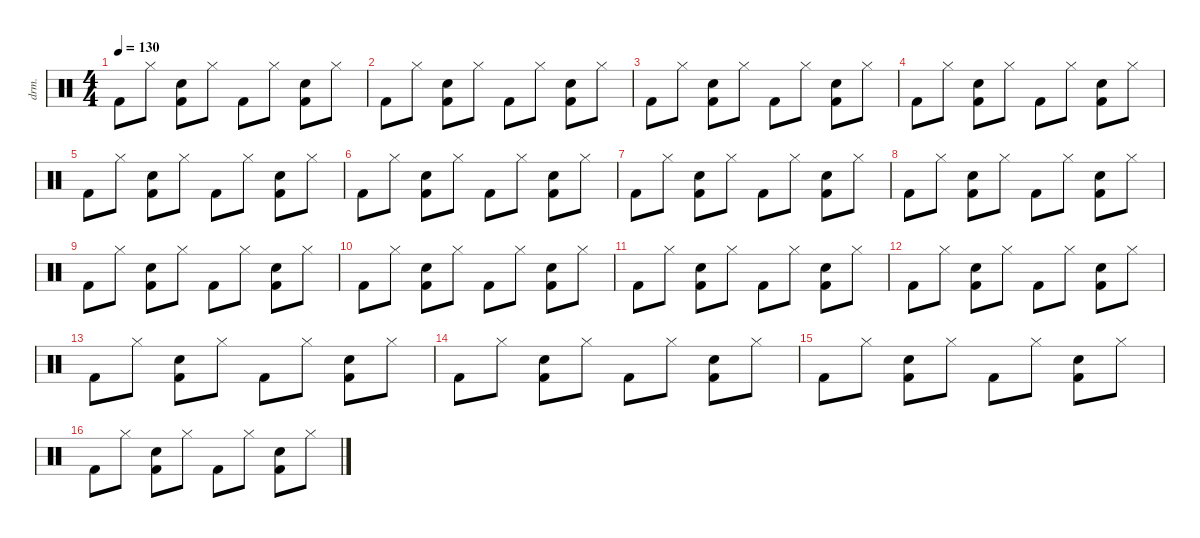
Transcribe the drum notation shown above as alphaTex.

\defaultSystemsLayout 4
\hideDynamics
\bracketExtendMode nobrackets
\otherSystemsTrackNameOrientation horizontal
\track ("Percussion" "drm.") {defaultSystemsLayout 4 instrument percussion}
\staff {score}
\articulation defaults
\ts (4 4)
\tempo 130
\clef neutral
\ks c "Kick (hit) 2".8{dy f beam Down} "Hi-Hat (closed)".8{beam Down}
("Snare (hit) 2" "Kick (hit) 2").8{beam Down} "Hi-Hat (closed)".8{beam Down} "Kick (hit) 2".8{beam Down} "Hi-Hat (closed)".8{beam Down} ("Snare (hit) 2" "Kick (hit) 2").8{beam Down} "Hi-Hat (closed)".8{beam Down} |
"Kick (hit) 2".8{beam Down} "Hi-Hat (closed)".8{beam Down} ("Snare (hit) 2" "Kick (hit) 2").8{beam Down} "Hi-Hat (closed)".8{beam Down} "Kick (hit) 2".8{beam Down} "Hi-Hat (closed)".8{beam Down} ("Snare (hit) 2" "Kick (hit) 2").8{beam Down} "Hi-Hat (closed)".8{beam Down} |
"Kick (hit) 2".8{beam Down} "Hi-Hat (closed)".8{beam Down} ("Snare (hit) 2" "Kick (hit) 2").8{beam Down} "Hi-Hat (closed)".8{beam Down} "Kick (hit) 2".8{beam Down} "Hi-Hat (closed)".8{beam Down} ("Snare (hit) 2" "Kick (hit) 2").8{beam Down} "Hi-Hat (closed)".8{beam Down} |
"Kick (hit) 2".8{beam Down} "Hi-Hat (closed)".8{beam Down} ("Snare (hit) 2" "Kick (hit) 2").8{beam Down} "Hi-Hat (closed)".8{beam Down} "Kick (hit) 2".8{beam Down} "Hi-Hat (closed)".8{beam Down} ("Snare (hit) 2" "Kick (hit) 2").8{beam Down} "Hi-Hat (closed)".8{beam Down} |
"Kick (hit) 2".8{beam Down} "Hi-Hat (closed)".8{beam Down} ("Snare (hit) 2" "Kick (hit) 2").8{beam Down} "Hi-Hat (closed)".8{beam Down} "Kick (hit) 2".8{beam Down} "Hi-Hat (closed)".8{beam Down} ("Snare (hit) 2" "Kick (hit) 2").8{beam Down} "Hi-Hat (closed)".8{beam Down} |
"Kick (hit) 2".8{beam Down} "Hi-Hat (closed)".8{beam Down} ("Snare (hit) 2" "Kick (hit) 2").8{beam Down} "Hi-Hat (closed)".8{beam Down} "Kick (hit) 2".8{beam Down} "Hi-Hat (closed)".8{beam Down} ("Snare (hit) 2" "Kick (hit) 2").8{beam Down} "Hi-Hat (closed)".8{beam Down} |
"Kick (hit) 2".8{beam Down} "Hi-Hat (closed)".8{beam Down} ("Snare (hit) 2" "Kick (hit) 2").8{beam Down} "Hi-Hat (closed)".8{beam Down} "Kick (hit) 2".8{beam Down} "Hi-Hat (closed)".8{beam Down} ("Snare (hit) 2" "Kick (hit) 2").8{beam Down} "Hi-Hat (closed)".8{beam Down} |
"Kick (hit) 2".8{beam Down} "Hi-Hat (closed)".8{beam Down} ("Snare (hit) 2" "Kick (hit) 2").8{beam Down} "Hi-Hat (closed)".8{beam Down} "Kick (hit) 2".8{beam Down} "Hi-Hat (closed)".8{beam Down} ("Snare (hit) 2" "Kick (hit) 2").8{beam Down} "Hi-Hat (closed)".8{beam Down} |
"Kick (hit) 2".8{beam Down} "Hi-Hat (closed)".8{beam Down} ("Snare (hit) 2" "Kick (hit) 2").8{beam Down} "Hi-Hat (closed)".8{beam Down} "Kick (hit) 2".8{beam Down} "Hi-Hat (closed)".8{beam Down} ("Snare (hit) 2" "Kick (hit) 2").8{beam Down} "Hi-Hat (closed)".8{beam Down} |
"Kick (hit) 2".8{beam Down} "Hi-Hat (closed)".8{beam Down} ("Snare (hit) 2" "Kick (hit) 2").8{beam Down} "Hi-Hat (closed)".8{beam Down} "Kick (hit) 2".8{beam Down} "Hi-Hat (closed)".8{beam Down} ("Snare (hit) 2" "Kick (hit) 2").8{beam Down} "Hi-Hat (closed)".8{beam Down} |
"Kick (hit) 2".8{beam Down} "Hi-Hat (closed)".8{beam Down} ("Snare (hit) 2" "Kick (hit) 2").8{beam Down} "Hi-Hat (closed)".8{beam Down} "Kick (hit) 2".8{beam Down} "Hi-Hat (closed)".8{beam Down} ("Snare (hit) 2" "Kick (hit) 2").8{beam Down} "Hi-Hat (closed)".8{beam Down} |
"Kick (hit) 2".8{beam Down} "Hi-Hat (closed)".8{beam Down} ("Snare (hit) 2" "Kick (hit) 2").8{beam Down} "Hi-Hat (closed)".8{beam Down} "Kick (hit) 2".8{beam Down} "Hi-Hat (closed)".8{beam Down} ("Snare (hit) 2" "Kick (hit) 2").8{beam Down} "Hi-Hat (closed)".8{beam Down} |
"Kick (hit) 2".8{beam Down} "Hi-Hat (closed)".8{beam Down} ("Snare (hit) 2" "Kick (hit) 2").8{beam Down} "Hi-Hat (closed)".8{beam Down} "Kick (hit) 2".8{beam Down} "Hi-Hat (closed)".8{beam Down} ("Snare (hit) 2" "Kick (hit) 2").8{beam Down} "Hi-Hat (closed)".8{beam Down} |
"Kick (hit) 2".8{beam Down} "Hi-Hat (closed)".8{beam Down} ("Snare (hit) 2" "Kick (hit) 2").8{beam Down} "Hi-Hat (closed)".8{beam Down} "Kick (hit) 2".8{beam Down} "Hi-Hat (closed)".8{beam Down} ("Snare (hit) 2" "Kick (hit) 2").8{beam Down} "Hi-Hat (closed)".8{beam Down} |
"Kick (hit) 2".8{beam Down} "Hi-Hat (closed)".8{beam Down} ("Snare (hit) 2" "Kick (hit) 2").8{beam Down} "Hi-Hat (closed)".8{beam Down} "Kick (hit) 2".8{beam Down} "Hi-Hat (closed)".8{beam Down} ("Snare (hit) 2" "Kick (hit) 2").8{beam Down} "Hi-Hat (closed)".8{beam Down} |
"Kick (hit) 2".8{beam Down} "Hi-Hat (closed)".8{beam Down} ("Snare (hit) 2" "Kick (hit) 2").8{beam Down} "Hi-Hat (closed)".8{beam Down} "Kick (hit) 2".8{beam Down} "Hi-Hat (closed)".8{beam Down} ("Snare (hit) 2" "Kick (hit) 2").8{beam Down} "Hi-Hat (closed)".8{beam Down}
